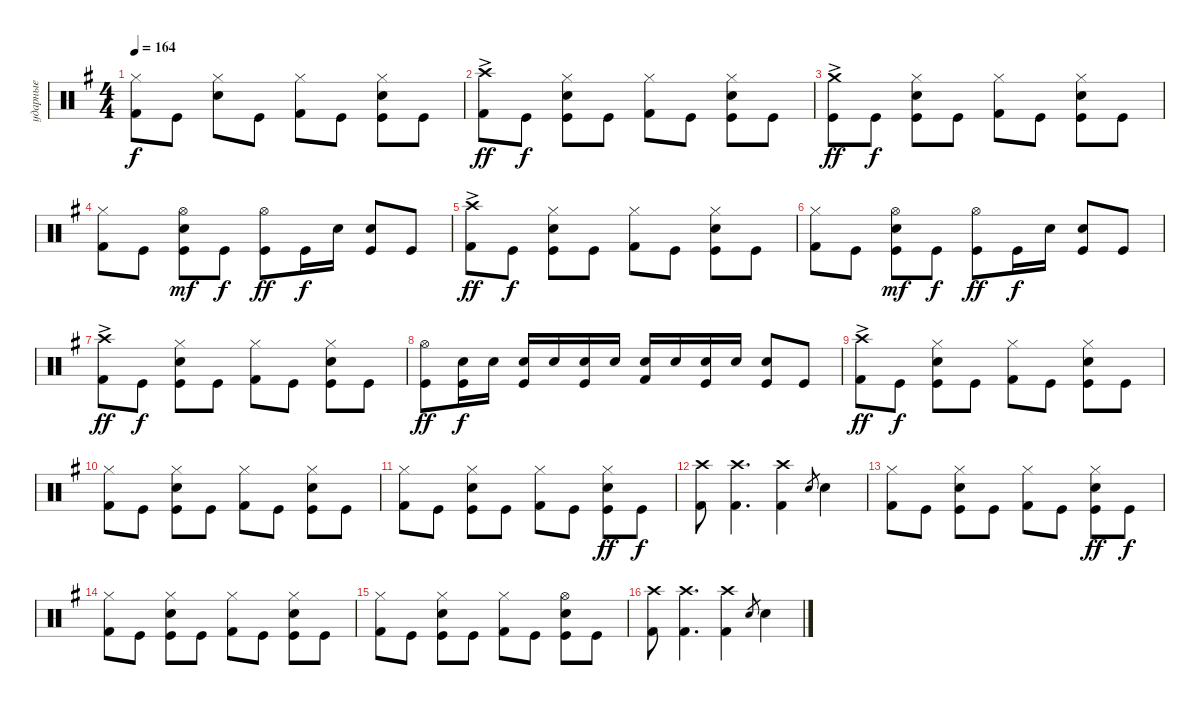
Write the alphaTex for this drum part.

\track ("ударные" "ударные") {instrument percussion}
\staff {score}
\articulation defaults
\ts (4 4)
\tempo 164
\clef neutral
\ks eminor
("Hi-Hat (closed)" "Kick (hit) 2").8{dy f} "Kick (hit)".8 ("Snare (hit) 2" "Hi-Hat (closed)").8 "Kick (hit)".8 ("Hi-Hat (closed)" "Kick (hit) 2").8 "Kick (hit)".8 ("Hi-Hat (closed)" "Kick (hit)" "Snare (hit) 2").8 "Kick (hit)".8 |
("Crash high (hit)"{ac} "Kick (hit) 2").8{dy ff} "Kick (hit)".8{dy f} ("Hi-Hat (closed)" "Kick (hit)" "Snare (hit) 2").8 "Kick (hit)".8 ("Hi-Hat (closed)" "Kick (hit) 2").8 "Kick (hit)".8 ("Kick (hit)" "Snare (hit) 2" "Hi-Hat (closed)").8 "Kick (hit)".8 |
("Kick (hit)" "Crash medium (hit)"{ac}).8{dy ff} "Kick (hit)".8{dy f} ("Hi-Hat (closed)" "Kick (hit)" "Snare (hit) 2").8 "Kick (hit)".8 ("Hi-Hat (closed)" "Kick (hit) 2").8 "Kick (hit)".8 ("Kick (hit)" "Snare (hit) 2" "Hi-Hat (closed)").8 "Kick (hit)".8 |
("Hi-Hat (closed)" "Kick (hit) 2").8 "Kick (hit)".8 ("Kick (hit)" "Snare (hit) 2" "Hi-Hat (open)").8{dy mf} "Kick (hit)".8{dy f} ("Kick (hit)" "Hi-Hat (open)").8{dy ff} "Kick (hit)".16{dy f} "Snare (hit) 2".16 ("Kick (hit)" "Snare (hit) 2").8 "Kick (hit)".8 |
("Crash high (hit)"{ac} "Kick (hit) 2").8{dy ff} "Kick (hit)".8{dy f} ("Hi-Hat (closed)" "Kick (hit)" "Snare (hit) 2").8 "Kick (hit)".8 ("Hi-Hat (closed)" "Kick (hit) 2").8 "Kick (hit)".8 ("Kick (hit)" "Snare (hit) 2" "Hi-Hat (closed)").8 "Kick (hit)".8 |
("Hi-Hat (closed)" "Kick (hit) 2").8 "Kick (hit)".8 ("Kick (hit)" "Snare (hit) 2" "Hi-Hat (open)").8{dy mf} "Kick (hit)".8{dy f} ("Kick (hit)" "Hi-Hat (open)").8{dy ff} "Kick (hit)".16{dy f} "Snare (hit) 2".16 ("Kick (hit)" "Snare (hit) 2").8 "Kick (hit)".8 |
("Crash high (hit)"{ac} "Kick (hit) 2").8{dy ff} "Kick (hit)".8{dy f} ("Hi-Hat (closed)" "Kick (hit)" "Snare (hit) 2").8 "Kick (hit)".8 ("Hi-Hat (closed)" "Kick (hit) 2").8 "Kick (hit)".8 ("Kick (hit)" "Snare (hit) 2" "Hi-Hat (closed)").8 "Kick (hit)".8 |
("Kick (hit)" "Hi-Hat (open)").8{dy ff} ("Kick (hit)" "Snare (hit) 2").16{dy f} "Snare (hit) 2".16 ("Kick (hit)" "Snare (hit) 2").16 "Snare (hit) 2".16 ("Kick (hit)" "Snare (hit) 2").16 "Snare (hit) 2".16 ("Snare (hit) 2" "Kick (hit) 2").16 "Snare (hit) 2".16 ("Kick (hit)" "Snare (hit) 2").16 "Snare (hit) 2".16 ("Kick (hit)" "Snare (hit) 2").8 "Kick (hit)".8 |
("Crash high (hit)"{ac} "Kick (hit) 2").8{dy ff} "Kick (hit)".8{dy f} ("Hi-Hat (closed)" "Kick (hit)" "Snare (hit) 2").8 "Kick (hit)".8 ("Hi-Hat (closed)" "Kick (hit) 2").8 "Kick (hit)".8 ("Kick (hit)" "Snare (hit) 2" "Hi-Hat (closed)").8 "Kick (hit)".8 |
("Hi-Hat (closed)" "Kick (hit) 2").8 "Kick (hit)".8 ("Hi-Hat (closed)" "Kick (hit)" "Snare (hit) 2").8 "Kick (hit)".8 ("Hi-Hat (closed)" "Kick (hit) 2").8 "Kick (hit)".8 ("Kick (hit)" "Snare (hit) 2" "Hi-Hat (closed)").8 "Kick (hit)".8 |
("Hi-Hat (closed)" "Kick (hit) 2").8 "Kick (hit)".8 ("Hi-Hat (closed)" "Kick (hit)" "Snare (hit) 2").8 "Kick (hit)".8 ("Hi-Hat (closed)" "Kick (hit) 2").8 "Kick (hit)".8 ("Snare (hit) 2" "Kick (hit)" "Hi-Hat (closed)").8{dy ff} "Kick (hit)".8{dy f} |
("Crash high (hit)" "Kick (hit) 2").8 ("Crash high (hit)" "Kick (hit) 2").4{d} ("Crash high (hit)" "Kick (hit) 2").4 "Snare (hit) 2".8{gr} "Snare (hit) 2".4 |
("Hi-Hat (closed)" "Kick (hit) 2").8 "Kick (hit)".8 ("Hi-Hat (closed)" "Kick (hit)" "Snare (hit) 2").8 "Kick (hit)".8 ("Hi-Hat (closed)" "Kick (hit) 2").8 "Kick (hit)".8 ("Snare (hit) 2" "Kick (hit)" "Hi-Hat (closed)").8{dy ff} "Kick (hit)".8{dy f} |
("Hi-Hat (closed)" "Kick (hit) 2").8 "Kick (hit)".8 ("Hi-Hat (closed)" "Kick (hit)" "Snare (hit) 2").8 "Kick (hit)".8 ("Hi-Hat (closed)" "Kick (hit) 2").8 "Kick (hit)".8 ("Kick (hit)" "Snare (hit) 2" "Hi-Hat (closed)").8 "Kick (hit)".8 |
("Hi-Hat (closed)" "Kick (hit) 2").8 "Kick (hit)".8 ("Hi-Hat (closed)" "Kick (hit)" "Snare (hit) 2").8 "Kick (hit)".8 ("Hi-Hat (closed)" "Kick (hit) 2").8 "Kick (hit)".8 ("Snare (hit) 2" "Kick (hit)" "Hi-Hat (open)").8 "Kick (hit)".8 |
("Crash high (hit)" "Kick (hit) 2").8 ("Crash high (hit)" "Kick (hit) 2").4{d} ("Crash high (hit)" "Kick (hit) 2").4 "Snare (hit) 2".8{gr} "Snare (hit) 2".4
